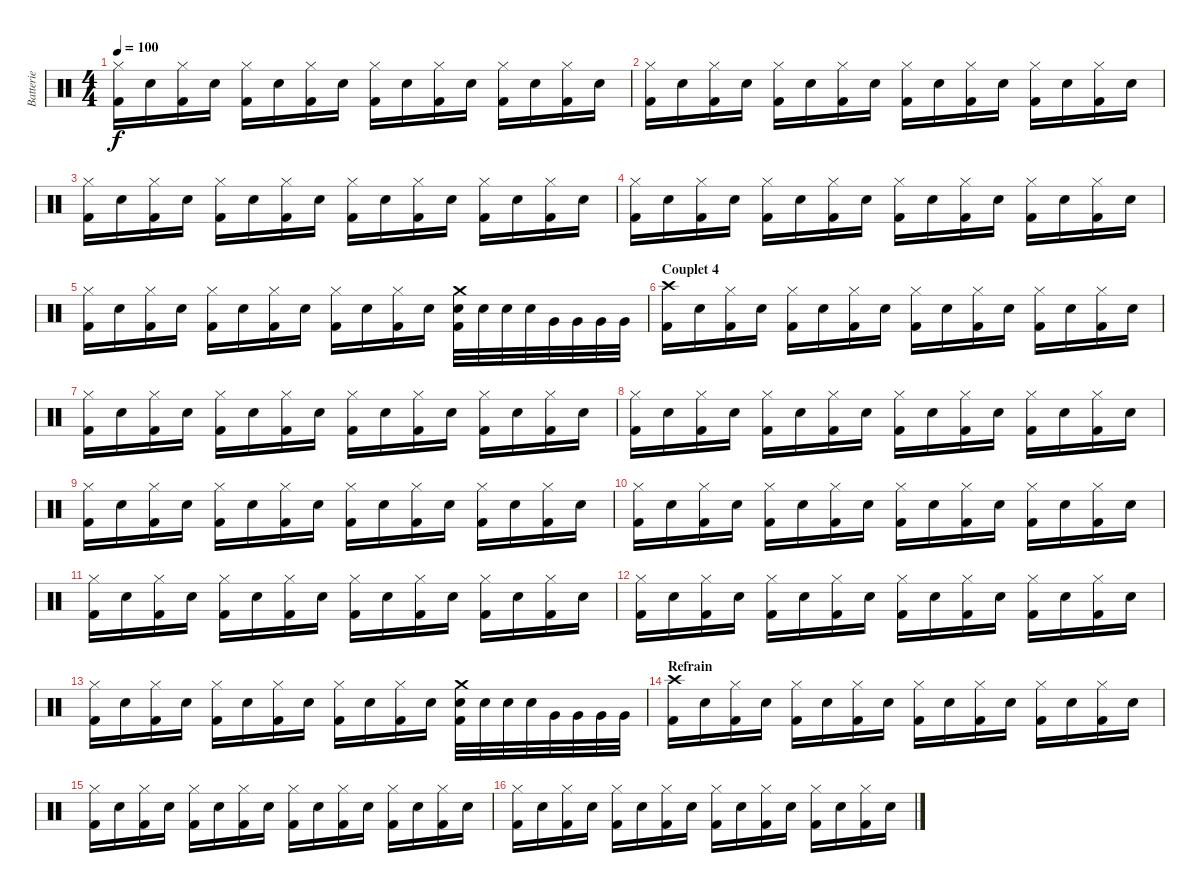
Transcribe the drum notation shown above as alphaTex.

\track ("Batterie" "Batterie") {instrument percussion}
\staff {score}
\articulation defaults
\ts (4 4)
\tempo 100
\clef neutral
\ks c
("Hi-Hat (closed)" "Kick (hit) 2").16{dy f} "Snare (hit) 2".16 ("Hi-Hat (closed)" "Kick (hit) 2").16 "Snare (hit) 2".16 ("Hi-Hat (closed)" "Kick (hit) 2").16 "Snare (hit) 2".16 ("Hi-Hat (closed)" "Kick (hit) 2").16 "Snare (hit) 2".16 ("Hi-Hat (closed)" "Kick (hit) 2").16 "Snare (hit) 2".16 ("Hi-Hat (closed)" "Kick (hit) 2").16 "Snare (hit) 2".16 ("Hi-Hat (closed)" "Kick (hit) 2").16 "Snare (hit) 2".16 ("Hi-Hat (closed)" "Kick (hit) 2").16 "Snare (hit) 2".16 |
("Hi-Hat (closed)" "Kick (hit) 2").16 "Snare (hit) 2".16 ("Hi-Hat (closed)" "Kick (hit) 2").16 "Snare (hit) 2".16 ("Hi-Hat (closed)" "Kick (hit) 2").16 "Snare (hit) 2".16 ("Hi-Hat (closed)" "Kick (hit) 2").16 "Snare (hit) 2".16 ("Hi-Hat (closed)" "Kick (hit) 2").16 "Snare (hit) 2".16 ("Hi-Hat (closed)" "Kick (hit) 2").16 "Snare (hit) 2".16 ("Hi-Hat (closed)" "Kick (hit) 2").16 "Snare (hit) 2".16 ("Hi-Hat (closed)" "Kick (hit) 2").16 "Snare (hit) 2".16 |
("Hi-Hat (closed)" "Kick (hit) 2").16 "Snare (hit) 2".16 ("Hi-Hat (closed)" "Kick (hit) 2").16 "Snare (hit) 2".16 ("Hi-Hat (closed)" "Kick (hit) 2").16 "Snare (hit) 2".16 ("Hi-Hat (closed)" "Kick (hit) 2").16 "Snare (hit) 2".16 ("Hi-Hat (closed)" "Kick (hit) 2").16 "Snare (hit) 2".16 ("Hi-Hat (closed)" "Kick (hit) 2").16 "Snare (hit) 2".16 ("Hi-Hat (closed)" "Kick (hit) 2").16 "Snare (hit) 2".16 ("Hi-Hat (closed)" "Kick (hit) 2").16 "Snare (hit) 2".16 |
("Hi-Hat (closed)" "Kick (hit) 2").16 "Snare (hit) 2".16 ("Hi-Hat (closed)" "Kick (hit) 2").16 "Snare (hit) 2".16 ("Hi-Hat (closed)" "Kick (hit) 2").16 "Snare (hit) 2".16 ("Hi-Hat (closed)" "Kick (hit) 2").16 "Snare (hit) 2".16 ("Hi-Hat (closed)" "Kick (hit) 2").16 "Snare (hit) 2".16 ("Hi-Hat (closed)" "Kick (hit) 2").16 "Snare (hit) 2".16 ("Hi-Hat (closed)" "Kick (hit) 2").16 "Snare (hit) 2".16 ("Hi-Hat (closed)" "Kick (hit) 2").16 "Snare (hit) 2".16 |
("Hi-Hat (closed)" "Kick (hit) 2").16 "Snare (hit) 2".16 ("Hi-Hat (closed)" "Kick (hit) 2").16 "Snare (hit) 2".16 ("Hi-Hat (closed)" "Kick (hit) 2").16 "Snare (hit) 2".16 ("Hi-Hat (closed)" "Kick (hit) 2").16 "Snare (hit) 2".16 ("Hi-Hat (closed)" "Kick (hit) 2").16 "Snare (hit) 2".16 ("Hi-Hat (closed)" "Kick (hit) 2").16 "Snare (hit) 2".16 ("Crash medium (hit)" "Snare (hit) 2" "Kick (hit) 2").32 "Snare (hit) 2".32 "Snare (hit) 2".32 "Snare (hit) 2".32 "Very Low Tom (hit)".32 "Very Low Tom (hit)".32 "Very Low Tom (hit)".32 "Very Low Tom (hit)".32 |
\section ("" "Couplet 4")
("Crash high (hit)" "Kick (hit) 2").16 "Snare (hit) 2".16 ("Hi-Hat (closed)" "Kick (hit) 2").16 "Snare (hit) 2".16 ("Hi-Hat (closed)" "Kick (hit) 2").16 "Snare (hit) 2".16 ("Hi-Hat (closed)" "Kick (hit) 2").16 "Snare (hit) 2".16 ("Hi-Hat (closed)" "Kick (hit) 2").16 "Snare (hit) 2".16 ("Hi-Hat (closed)" "Kick (hit) 2").16 "Snare (hit) 2".16 ("Hi-Hat (closed)" "Kick (hit) 2").16 "Snare (hit) 2".16 ("Hi-Hat (closed)" "Kick (hit) 2").16 "Snare (hit) 2".16 |
("Hi-Hat (closed)" "Kick (hit) 2").16 "Snare (hit) 2".16 ("Hi-Hat (closed)" "Kick (hit) 2").16 "Snare (hit) 2".16 ("Hi-Hat (closed)" "Kick (hit) 2").16 "Snare (hit) 2".16 ("Hi-Hat (closed)" "Kick (hit) 2").16 "Snare (hit) 2".16 ("Hi-Hat (closed)" "Kick (hit) 2").16 "Snare (hit) 2".16 ("Hi-Hat (closed)" "Kick (hit) 2").16 "Snare (hit) 2".16 ("Hi-Hat (closed)" "Kick (hit) 2").16 "Snare (hit) 2".16 ("Hi-Hat (closed)" "Kick (hit) 2").16 "Snare (hit) 2".16 |
("Hi-Hat (closed)" "Kick (hit) 2").16 "Snare (hit) 2".16 ("Hi-Hat (closed)" "Kick (hit) 2").16 "Snare (hit) 2".16 ("Hi-Hat (closed)" "Kick (hit) 2").16 "Snare (hit) 2".16 ("Hi-Hat (closed)" "Kick (hit) 2").16 "Snare (hit) 2".16 ("Hi-Hat (closed)" "Kick (hit) 2").16 "Snare (hit) 2".16 ("Hi-Hat (closed)" "Kick (hit) 2").16 "Snare (hit) 2".16 ("Hi-Hat (closed)" "Kick (hit) 2").16 "Snare (hit) 2".16 ("Hi-Hat (closed)" "Kick (hit) 2").16 "Snare (hit) 2".16 |
("Hi-Hat (closed)" "Kick (hit) 2").16 "Snare (hit) 2".16 ("Hi-Hat (closed)" "Kick (hit) 2").16 "Snare (hit) 2".16 ("Hi-Hat (closed)" "Kick (hit) 2").16 "Snare (hit) 2".16 ("Hi-Hat (closed)" "Kick (hit) 2").16 "Snare (hit) 2".16 ("Hi-Hat (closed)" "Kick (hit) 2").16 "Snare (hit) 2".16 ("Hi-Hat (closed)" "Kick (hit) 2").16 "Snare (hit) 2".16 ("Hi-Hat (closed)" "Kick (hit) 2").16 "Snare (hit) 2".16 ("Hi-Hat (closed)" "Kick (hit) 2").16 "Snare (hit) 2".16 |
("Hi-Hat (closed)" "Kick (hit) 2").16 "Snare (hit) 2".16 ("Hi-Hat (closed)" "Kick (hit) 2").16 "Snare (hit) 2".16 ("Hi-Hat (closed)" "Kick (hit) 2").16 "Snare (hit) 2".16 ("Hi-Hat (closed)" "Kick (hit) 2").16 "Snare (hit) 2".16 ("Hi-Hat (closed)" "Kick (hit) 2").16 "Snare (hit) 2".16 ("Hi-Hat (closed)" "Kick (hit) 2").16 "Snare (hit) 2".16 ("Hi-Hat (closed)" "Kick (hit) 2").16 "Snare (hit) 2".16 ("Hi-Hat (closed)" "Kick (hit) 2").16 "Snare (hit) 2".16 |
("Hi-Hat (closed)" "Kick (hit) 2").16 "Snare (hit) 2".16 ("Hi-Hat (closed)" "Kick (hit) 2").16 "Snare (hit) 2".16 ("Hi-Hat (closed)" "Kick (hit) 2").16 "Snare (hit) 2".16 ("Hi-Hat (closed)" "Kick (hit) 2").16 "Snare (hit) 2".16 ("Hi-Hat (closed)" "Kick (hit) 2").16 "Snare (hit) 2".16 ("Hi-Hat (closed)" "Kick (hit) 2").16 "Snare (hit) 2".16 ("Hi-Hat (closed)" "Kick (hit) 2").16 "Snare (hit) 2".16 ("Hi-Hat (closed)" "Kick (hit) 2").16 "Snare (hit) 2".16 |
("Hi-Hat (closed)" "Kick (hit) 2").16 "Snare (hit) 2".16 ("Hi-Hat (closed)" "Kick (hit) 2").16 "Snare (hit) 2".16 ("Hi-Hat (closed)" "Kick (hit) 2").16 "Snare (hit) 2".16 ("Hi-Hat (closed)" "Kick (hit) 2").16 "Snare (hit) 2".16 ("Hi-Hat (closed)" "Kick (hit) 2").16 "Snare (hit) 2".16 ("Hi-Hat (closed)" "Kick (hit) 2").16 "Snare (hit) 2".16 ("Hi-Hat (closed)" "Kick (hit) 2").16 "Snare (hit) 2".16 ("Hi-Hat (closed)" "Kick (hit) 2").16 "Snare (hit) 2".16 |
("Hi-Hat (closed)" "Kick (hit) 2").16 "Snare (hit) 2".16 ("Hi-Hat (closed)" "Kick (hit) 2").16 "Snare (hit) 2".16 ("Hi-Hat (closed)" "Kick (hit) 2").16 "Snare (hit) 2".16 ("Hi-Hat (closed)" "Kick (hit) 2").16 "Snare (hit) 2".16 ("Hi-Hat (closed)" "Kick (hit) 2").16 "Snare (hit) 2".16 ("Hi-Hat (closed)" "Kick (hit) 2").16 "Snare (hit) 2".16 ("Crash medium (hit)" "Snare (hit) 2" "Kick (hit) 2").32 "Snare (hit) 2".32 "Snare (hit) 2".32 "Snare (hit) 2".32 "Very Low Tom (hit)".32 "Very Low Tom (hit)".32 "Very Low Tom (hit)".32 "Very Low Tom (hit)".32 |
\section ("" "Refrain")
("Crash high (hit)" "Kick (hit) 2").16 "Snare (hit) 2".16 ("Hi-Hat (closed)" "Kick (hit) 2").16 "Snare (hit) 2".16 ("Hi-Hat (closed)" "Kick (hit) 2").16 "Snare (hit) 2".16 ("Hi-Hat (closed)" "Kick (hit) 2").16 "Snare (hit) 2".16 ("Hi-Hat (closed)" "Kick (hit) 2").16 "Snare (hit) 2".16 ("Hi-Hat (closed)" "Kick (hit) 2").16 "Snare (hit) 2".16 ("Hi-Hat (closed)" "Kick (hit) 2").16 "Snare (hit) 2".16 ("Hi-Hat (closed)" "Kick (hit) 2").16 "Snare (hit) 2".16 |
("Hi-Hat (closed)" "Kick (hit) 2").16 "Snare (hit) 2".16 ("Hi-Hat (closed)" "Kick (hit) 2").16 "Snare (hit) 2".16 ("Hi-Hat (closed)" "Kick (hit) 2").16 "Snare (hit) 2".16 ("Hi-Hat (closed)" "Kick (hit) 2").16 "Snare (hit) 2".16 ("Hi-Hat (closed)" "Kick (hit) 2").16 "Snare (hit) 2".16 ("Hi-Hat (closed)" "Kick (hit) 2").16 "Snare (hit) 2".16 ("Hi-Hat (closed)" "Kick (hit) 2").16 "Snare (hit) 2".16 ("Hi-Hat (closed)" "Kick (hit) 2").16 "Snare (hit) 2".16 |
("Hi-Hat (closed)" "Kick (hit) 2").16 "Snare (hit) 2".16 ("Hi-Hat (closed)" "Kick (hit) 2").16 "Snare (hit) 2".16 ("Hi-Hat (closed)" "Kick (hit) 2").16 "Snare (hit) 2".16 ("Hi-Hat (closed)" "Kick (hit) 2").16 "Snare (hit) 2".16 ("Hi-Hat (closed)" "Kick (hit) 2").16 "Snare (hit) 2".16 ("Hi-Hat (closed)" "Kick (hit) 2").16 "Snare (hit) 2".16 ("Hi-Hat (closed)" "Kick (hit) 2").16 "Snare (hit) 2".16 ("Hi-Hat (closed)" "Kick (hit) 2").16 "Snare (hit) 2".16
